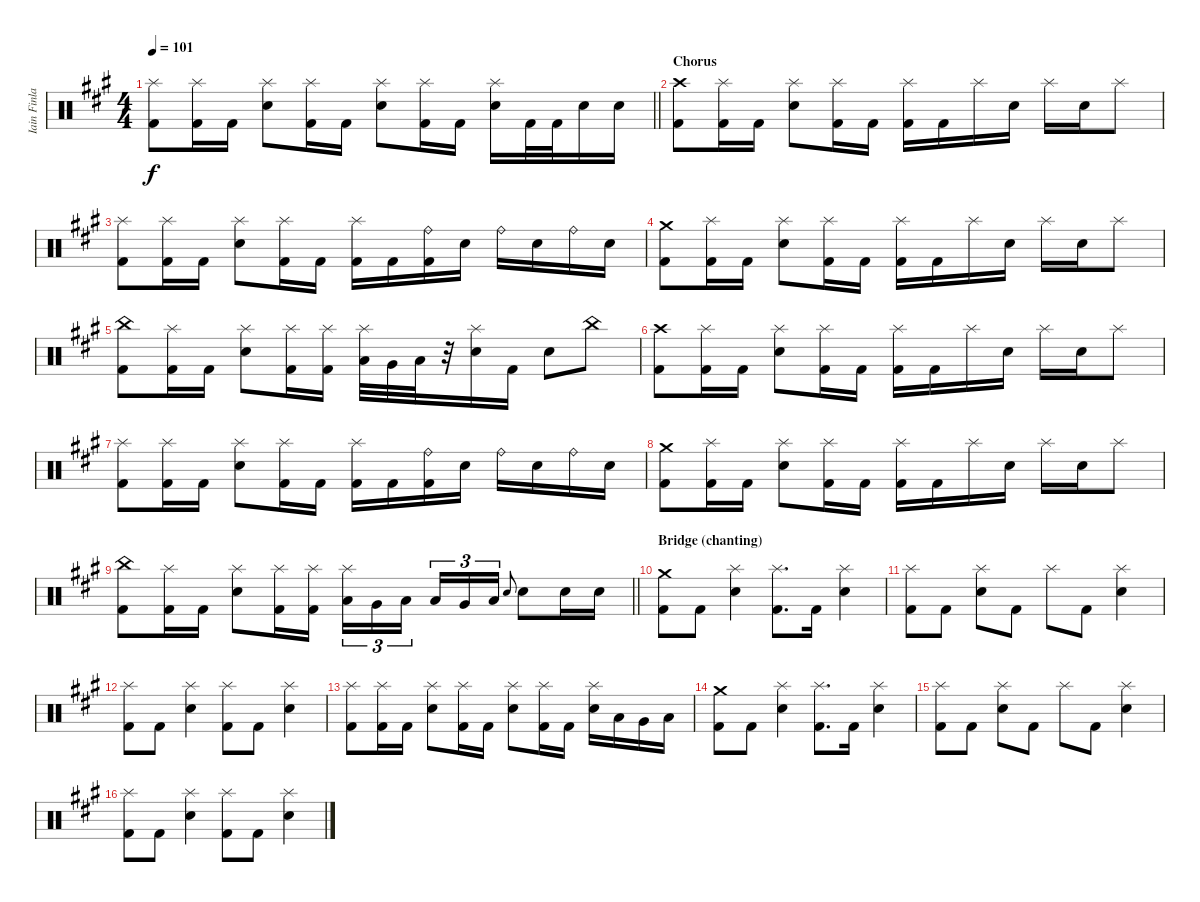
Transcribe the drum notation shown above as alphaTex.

\track ("Iain Finlay" "Iain Finla") {instrument percussion}
\staff {score}
\articulation defaults
\ts (4 4)
\tempo 101
\clef neutral
\barLineRight lightlight
\ks f#minor
("Splash (hit)" "Kick (hit) 2").8{dy f} ("Splash (hit)" "Kick (hit) 2").16 "Kick (hit) 2".16 ("Splash (hit)" "Snare (hit) 2").8 ("Splash (hit)" "Kick (hit) 2").16 "Kick (hit) 2".16 ("Splash (hit)" "Snare (hit) 2").8 ("Splash (hit)" "Kick (hit) 2").16 "Kick (hit) 2".16 ("Splash (hit)" "Snare (hit) 2").16 "Kick (hit) 2".32 "Kick (hit) 2".32 "Snare (hit) 2".16 "Snare (hit) 2".16 |
\section ("" "Chorus")
("Crash high (hit)" "Kick (hit) 2").8 ("Splash (hit)" "Kick (hit) 2").16 "Kick (hit) 2".16 ("Splash (hit)" "Snare (hit) 2").8 ("Splash (hit)" "Kick (hit) 2").16 "Kick (hit) 2".16 ("Splash (hit)" "Kick (hit) 2").16 "Kick (hit) 2".16 "Splash (hit)".16 "Snare (hit) 2".16 "Splash (hit)".16 "Snare (hit) 2".16 "Splash (hit)".8 |
("Splash (hit)" "Kick (hit) 2").8 ("Splash (hit)" "Kick (hit) 2").16 "Kick (hit) 2".16 ("Splash (hit)" "Snare (hit) 2").8 ("Splash (hit)" "Kick (hit) 2").16 "Kick (hit) 2".16 ("Splash (hit)" "Kick (hit) 2").16 "Kick (hit) 2".16 ("Ride (bell)" "Kick (hit) 2").16 "Snare (hit) 2".16 "Ride (bell)".16 "Snare (hit) 2".16 "Ride (bell)".16 "Snare (hit) 2".16 |
("Crash medium (hit)" "Kick (hit) 2").8 ("Splash (hit)" "Kick (hit) 2").16 "Kick (hit) 2".16 ("Splash (hit)" "Snare (hit) 2").8 ("Splash (hit)" "Kick (hit) 2").16 "Kick (hit) 2".16 ("Splash (hit)" "Kick (hit) 2").16 "Kick (hit) 2".16 "Splash (hit)".16 "Snare (hit) 2".16 "Splash (hit)".16 "Snare (hit) 2".16 "Splash (hit)".8 |
("China (hit)" "Kick (hit) 2").8 ("Splash (hit)" "Kick (hit) 2").16 "Kick (hit) 2".16 ("Splash (hit)" "Snare (hit) 2").8 ("Splash (hit)" "Kick (hit) 2").16 ("Splash (hit)" "Kick (hit) 2").16 ("Splash (hit)" "Low Tom (hit)").32 "Very Low Tom (hit)".32 "Low Floor Tom (hit)".32 r.32 ("Splash (hit)" "Snare (hit) 2").16 "Kick (hit) 2".16 "Snare (hit) 2".8 "China (hit)".8 |
("Crash high (hit)" "Kick (hit) 2").8 ("Splash (hit)" "Kick (hit) 2").16 "Kick (hit) 2".16 ("Splash (hit)" "Snare (hit) 2").8 ("Splash (hit)" "Kick (hit) 2").16 "Kick (hit) 2".16 ("Splash (hit)" "Kick (hit) 2").16 "Kick (hit) 2".16 "Splash (hit)".16 "Snare (hit) 2".16 "Splash (hit)".16 "Snare (hit) 2".16 "Splash (hit)".8 |
("Splash (hit)" "Kick (hit) 2").8 ("Splash (hit)" "Kick (hit) 2").16 "Kick (hit) 2".16 ("Splash (hit)" "Snare (hit) 2").8 ("Splash (hit)" "Kick (hit) 2").16 "Kick (hit) 2".16 ("Splash (hit)" "Kick (hit) 2").16 "Kick (hit) 2".16 ("Ride (bell)" "Kick (hit) 2").16 "Snare (hit) 2".16 "Ride (bell)".16 "Snare (hit) 2".16 "Ride (bell)".16 "Snare (hit) 2".16 |
("Crash medium (hit)" "Kick (hit) 2").8 ("Splash (hit)" "Kick (hit) 2").16 "Kick (hit) 2".16 ("Splash (hit)" "Snare (hit) 2").8 ("Splash (hit)" "Kick (hit) 2").16 "Kick (hit) 2".16 ("Splash (hit)" "Kick (hit) 2").16 "Kick (hit) 2".16 "Splash (hit)".16 "Snare (hit) 2".16 "Splash (hit)".16 "Snare (hit) 2".16 "Splash (hit)".8 |
\barLineRight lightlight
("China (hit)" "Kick (hit) 2").8 ("Splash (hit)" "Kick (hit) 2").16 "Kick (hit) 2".16 ("Splash (hit)" "Snare (hit) 2").8 ("Splash (hit)" "Kick (hit) 2").16 ("Splash (hit)" "Kick (hit) 2").16 ("Splash (hit)" "Low Tom (hit)").16{tu (3 2)} "Very Low Tom (hit)".16{tu (3 2)} "Low Floor Tom (hit)".16{tu (3 2) beam splitsecondary} "Low Floor Tom (hit)".16{tu (3 2)} "Very Low Tom (hit)".16{tu (3 2)} "Low Tom (hit)".16{tu (3 2)} "Snare (hit) 2".8{gr onbeat} "Snare (hit) 2".8 "Snare (hit) 2".16 "Snare (hit) 2".16 |
\section ("" "Bridge (chanting)")
("Crash medium (hit)" "Kick (hit) 2").8 "Kick (hit) 2".8 ("Splash (hit)" "Snare (hit) 2").4 ("Splash (hit)" "Kick (hit) 2").8{d} "Kick (hit) 2".16 ("Splash (hit)" "Snare (hit) 2").4 |
("Splash (hit)" "Kick (hit) 2").8 "Kick (hit) 2".8 ("Splash (hit)" "Snare (hit) 2").8 "Kick (hit) 2".8 "Splash (hit)".8 "Kick (hit) 2".8 ("Splash (hit)" "Snare (hit) 2").4 |
("Splash (hit)" "Kick (hit) 2").8 "Kick (hit) 2".8 ("Splash (hit)" "Snare (hit) 2").4 ("Splash (hit)" "Kick (hit) 2").8 "Kick (hit) 2".8 ("Splash (hit)" "Snare (hit) 2").4 |
("Splash (hit)" "Kick (hit) 2").8 ("Splash (hit)" "Kick (hit) 2").16 "Kick (hit) 2".16 ("Splash (hit)" "Snare (hit) 2").8 ("Splash (hit)" "Kick (hit) 2").16 "Kick (hit) 2".16 ("Splash (hit)" "Snare (hit) 2").8 ("Splash (hit)" "Kick (hit) 2").16 "Kick (hit) 2".16 ("Splash (hit)" "Snare (hit) 2").16 "Low Tom (hit)".16 "Very Low Tom (hit)".16 "Low Floor Tom (hit)".16 |
("Crash medium (hit)" "Kick (hit) 2").8 "Kick (hit) 2".8 ("Splash (hit)" "Snare (hit) 2").4 ("Splash (hit)" "Kick (hit) 2").8{d} "Kick (hit) 2".16 ("Splash (hit)" "Snare (hit) 2").4 |
("Splash (hit)" "Kick (hit) 2").8 "Kick (hit) 2".8 ("Splash (hit)" "Snare (hit) 2").8 "Kick (hit) 2".8 "Splash (hit)".8 "Kick (hit) 2".8 ("Splash (hit)" "Snare (hit) 2").4 |
("Splash (hit)" "Kick (hit) 2").8 "Kick (hit) 2".8 ("Splash (hit)" "Snare (hit) 2").4 ("Splash (hit)" "Kick (hit) 2").8 "Kick (hit) 2".8 ("Splash (hit)" "Snare (hit) 2").4
